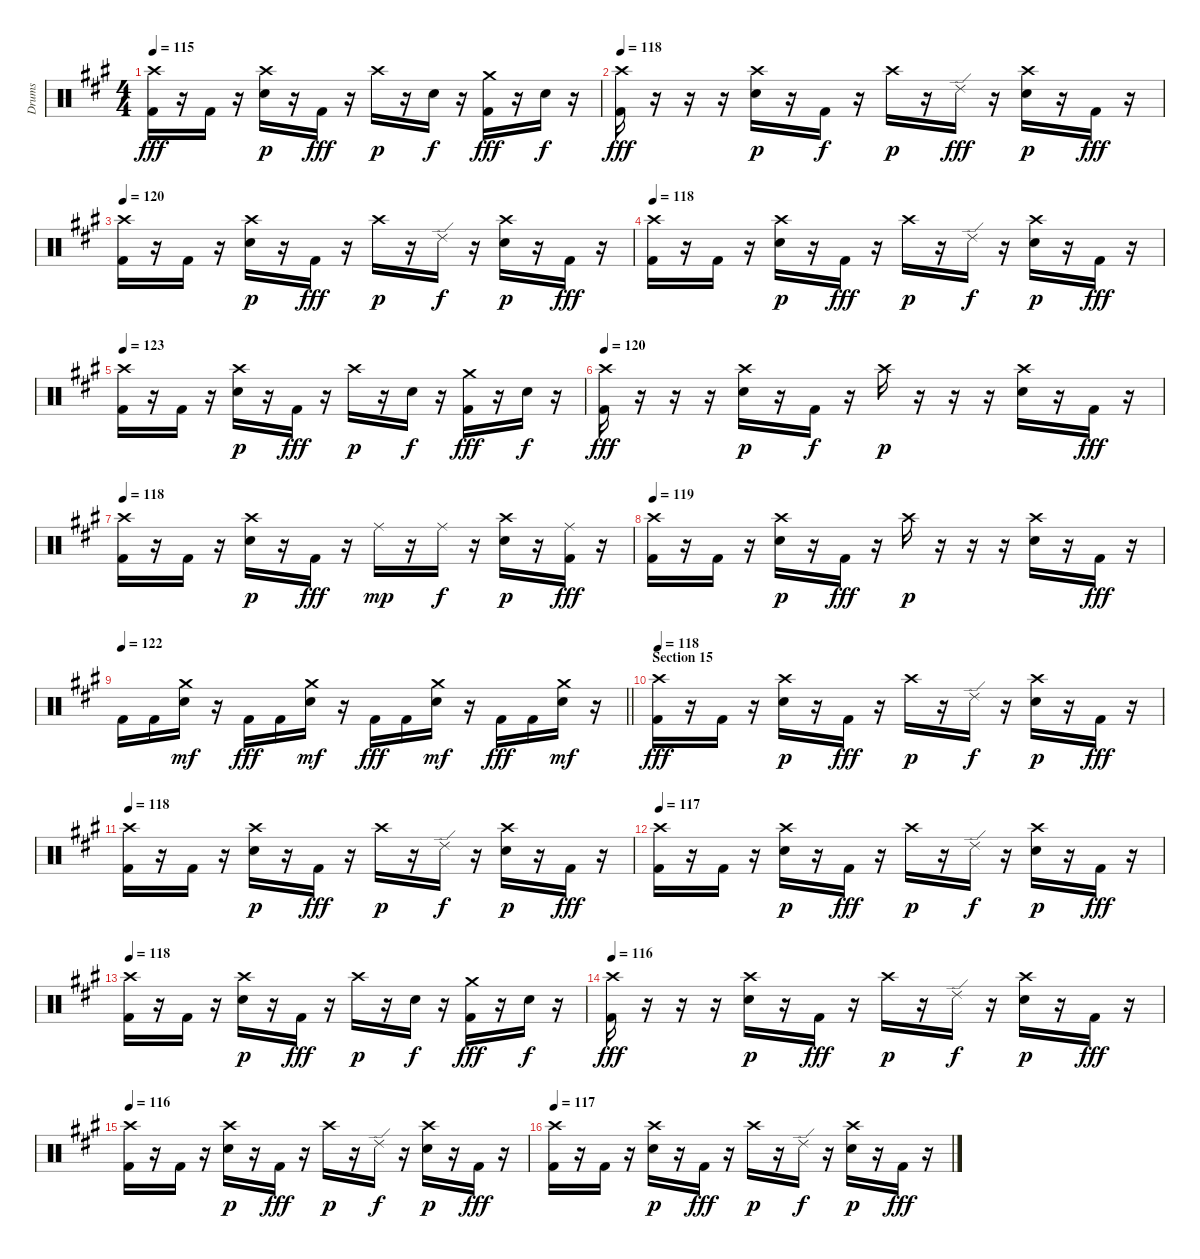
\track ("Drums" "Drums") {instrument percussion}
\staff {score}
\articulation defaults
\ts (4 4)
\tempo 115
\clef neutral
\ks f#minor
("Crash high (hit)" "Kick (hit) 2").16{dy fff} r.16 "Kick (hit) 2".16 r.16 ("Crash high (hit)" "Electric Snare (hit)").16{dy p} r.16 "Kick (hit) 2".16{dy fff} r.16 "Crash high (hit)".16{dy p} r.16 "Electric Snare (hit)".16{dy f} r.16 ("Crash medium (hit)" "Kick (hit) 2").16{dy fff} r.16 "Electric Snare (hit)".16{dy f} r.16 |
\tempo 118
("Crash high (hit)" "Kick (hit) 2").16{dy fff} r.16 r.16 r.16 ("Crash high (hit)" "Electric Snare (hit)").16{dy p} r.16 "Kick (hit) 2".16{dy f} r.16 "Crash high (hit)".16{dy p} r.16 "Ride (edge) 2".16{dy fff} r.16 ("Crash high (hit)" "Electric Snare (hit)").16{dy p} r.16 "Kick (hit) 2".16{dy fff} r.16 |
\tempo 120
("Crash high (hit)" "Kick (hit) 2").16 r.16 "Kick (hit) 2".16 r.16 ("Crash high (hit)" "Electric Snare (hit)").16{dy p} r.16 "Kick (hit) 2".16{dy fff} r.16 "Crash high (hit)".16{dy p} r.16 "Ride (edge) 2".16{dy f} r.16 ("Crash high (hit)" "Electric Snare (hit)").16{dy p} r.16 "Kick (hit) 2".16{dy fff} r.16 |
\tempo 118
("Crash high (hit)" "Kick (hit) 2").16 r.16 "Kick (hit) 2".16 r.16 ("Crash high (hit)" "Electric Snare (hit)").16{dy p} r.16 "Kick (hit) 2".16{dy fff} r.16 "Crash high (hit)".16{dy p} r.16 "Ride (edge) 2".16{dy f} r.16 ("Crash high (hit)" "Electric Snare (hit)").16{dy p} r.16 "Kick (hit) 2".16{dy fff} r.16 |
\tempo 123
("Crash high (hit)" "Kick (hit) 2").16 r.16 "Kick (hit) 2".16 r.16 ("Crash high (hit)" "Electric Snare (hit)").16{dy p} r.16 "Kick (hit) 2".16{dy fff} r.16 "Crash high (hit)".16{dy p} r.16 "Electric Snare (hit)".16{dy f} r.16 ("Crash medium (hit)" "Kick (hit) 2").16{dy fff} r.16 "Electric Snare (hit)".16{dy f} r.16 |
\tempo 120
("Crash high (hit)" "Kick (hit) 2").16{dy fff} r.16 r.16 r.16 ("Crash high (hit)" "Electric Snare (hit)").16{dy p} r.16 "Kick (hit) 2".16{dy f} r.16 "Crash high (hit)".16{dy p} r.16 r.16 r.16 ("Crash high (hit)" "Electric Snare (hit)").16 r.16 "Kick (hit) 2".16{dy fff} r.16 |
\tempo 118
("Crash high (hit)" "Kick (hit) 2").16 r.16 "Kick (hit) 2".16 r.16 ("Crash high (hit)" "Electric Snare (hit)").16{dy p} r.16 "Kick (hit) 2".16{dy fff} r.16 "Ride (middle)".16{dy mp} r.16 "Ride (middle)".16{dy f} r.16 ("Crash high (hit)" "Electric Snare (hit)").16{dy p} r.16 ("Ride (middle)" "Kick (hit) 2").16{dy fff} r.16 |
\tempo 119
("Crash high (hit)" "Kick (hit) 2").16 r.16 "Kick (hit) 2".16 r.16 ("Crash high (hit)" "Electric Snare (hit)").16{dy p} r.16 "Kick (hit) 2".16{dy fff} r.16 "Crash high (hit)".16{dy p} r.16 r.16 r.16 ("Crash high (hit)" "Electric Snare (hit)").16 r.16 "Kick (hit) 2".16{dy fff} r.16 |
\tempo 122
\barLineRight lightlight "Kick (hit) 2".16 "Kick (hit) 2".16
("Crash medium (hit)" "Electric Snare (hit)").16{dy mf} r.16 "Kick (hit) 2".16{dy fff} "Kick (hit) 2".16 ("Crash medium (hit)" "Electric Snare (hit)").16{dy mf} r.16 "Kick (hit) 2".16{dy fff} "Kick (hit) 2".16 ("Crash medium (hit)" "Electric Snare (hit)").16{dy mf} r.16 "Kick (hit) 2".16{dy fff} "Kick (hit) 2".16 ("Crash medium (hit)" "Electric Snare (hit)").16{dy mf} r.16 |
\section ("" "Section 15")
\tempo 118
("Crash high (hit)" "Kick (hit) 2").16{dy fff} r.16 "Kick (hit) 2".16 r.16 ("Crash high (hit)" "Electric Snare (hit)").16{dy p} r.16 "Kick (hit) 2".16{dy fff} r.16 "Crash high (hit)".16{dy p} r.16 "Ride (edge) 2".16{dy f} r.16 ("Crash high (hit)" "Electric Snare (hit)").16{dy p} r.16 "Kick (hit) 2".16{dy fff} r.16 |
\tempo 118
("Crash high (hit)" "Kick (hit) 2").16 r.16 "Kick (hit) 2".16 r.16 ("Crash high (hit)" "Electric Snare (hit)").16{dy p} r.16 "Kick (hit) 2".16{dy fff} r.16 "Crash high (hit)".16{dy p} r.16 "Ride (edge) 2".16{dy f} r.16 ("Crash high (hit)" "Electric Snare (hit)").16{dy p} r.16 "Kick (hit) 2".16{dy fff} r.16 |
\tempo 117
("Crash high (hit)" "Kick (hit) 2").16 r.16 "Kick (hit) 2".16 r.16 ("Crash high (hit)" "Electric Snare (hit)").16{dy p} r.16 "Kick (hit) 2".16{dy fff} r.16 "Crash high (hit)".16{dy p} r.16 "Ride (edge) 2".16{dy f} r.16 ("Crash high (hit)" "Electric Snare (hit)").16{dy p} r.16 "Kick (hit) 2".16{dy fff} r.16 |
\tempo 118
("Crash high (hit)" "Kick (hit) 2").16 r.16 "Kick (hit) 2".16 r.16 ("Crash high (hit)" "Electric Snare (hit)").16{dy p} r.16 "Kick (hit) 2".16{dy fff} r.16 "Crash high (hit)".16{dy p} r.16 "Electric Snare (hit)".16{dy f} r.16 ("Crash medium (hit)" "Kick (hit) 2").16{dy fff} r.16 "Electric Snare (hit)".16{dy f} r.16 |
\tempo 116
("Crash high (hit)" "Kick (hit) 2").16{dy fff} r.16 r.16 r.16 ("Crash high (hit)" "Electric Snare (hit)").16{dy p} r.16 "Kick (hit) 2".16{dy fff} r.16 "Crash high (hit)".16{dy p} r.16 "Ride (edge) 2".16{dy f} r.16 ("Crash high (hit)" "Electric Snare (hit)").16{dy p} r.16 "Kick (hit) 2".16{dy fff} r.16 |
\tempo 116
("Crash high (hit)" "Kick (hit) 2").16 r.16 "Kick (hit) 2".16 r.16 ("Crash high (hit)" "Electric Snare (hit)").16{dy p} r.16 "Kick (hit) 2".16{dy fff} r.16 "Crash high (hit)".16{dy p} r.16 "Ride (edge) 2".16{dy f} r.16 ("Crash high (hit)" "Electric Snare (hit)").16{dy p} r.16 "Kick (hit) 2".16{dy fff} r.16 |
\tempo 117
("Crash high (hit)" "Kick (hit) 2").16 r.16 "Kick (hit) 2".16 r.16 ("Crash high (hit)" "Electric Snare (hit)").16{dy p} r.16 "Kick (hit) 2".16{dy fff} r.16 "Crash high (hit)".16{dy p} r.16 "Ride (edge) 2".16{dy f} r.16 ("Crash high (hit)" "Electric Snare (hit)").16{dy p} r.16 "Kick (hit) 2".16{dy fff} r.16
